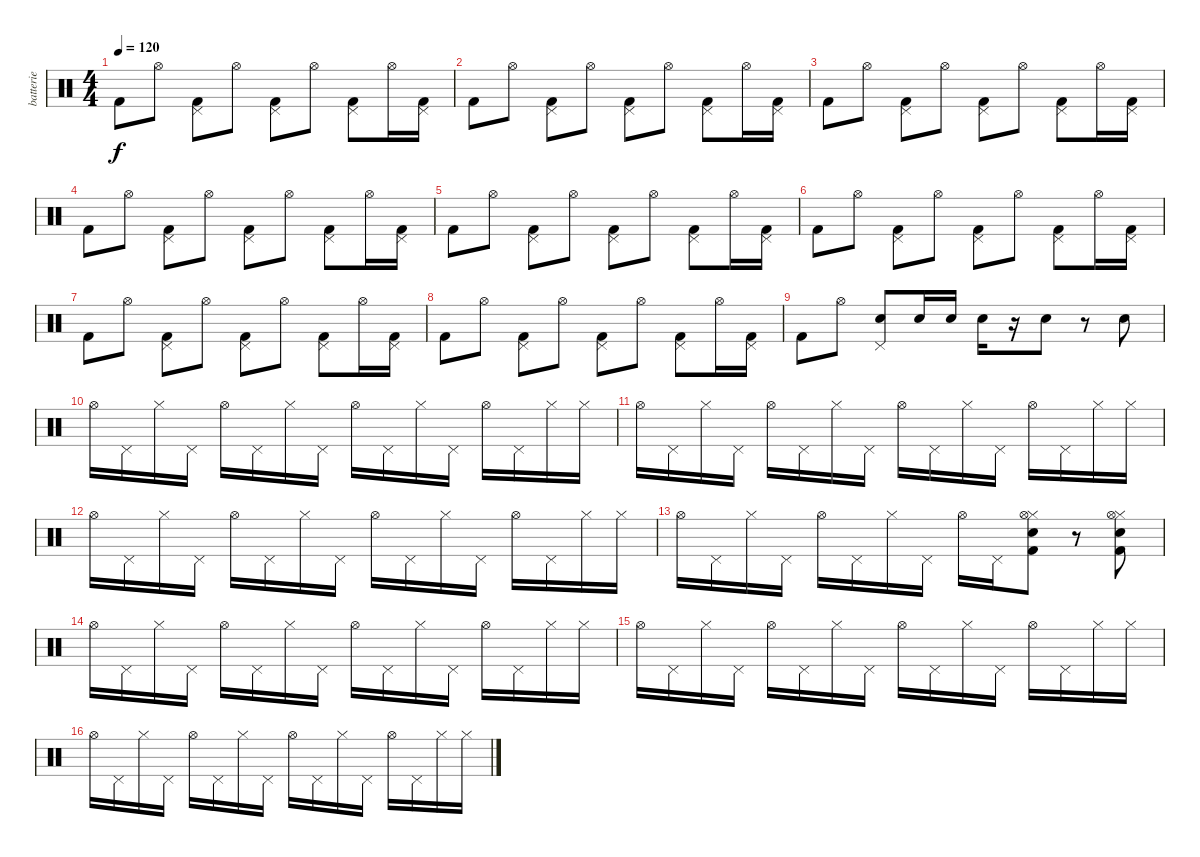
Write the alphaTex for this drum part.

\track ("batterie" "batterie") {instrument percussion}
\staff {score}
\articulation defaults
\ts (4 4)
\tempo 120
\clef neutral
\ks c "Kick (hit) 2".8{dy f} "Hi-Hat (open)".8
("Kick (hit) 2" "Pedal Hi-Hat (hit)").8 "Hi-Hat (open)".8 ("Kick (hit) 2" "Pedal Hi-Hat (hit)").8 "Hi-Hat (open)".8 ("Kick (hit) 2" "Pedal Hi-Hat (hit)").8 "Hi-Hat (open)".16 ("Kick (hit) 2" "Pedal Hi-Hat (hit)").16 |
"Kick (hit) 2".8 "Hi-Hat (open)".8 ("Kick (hit) 2" "Pedal Hi-Hat (hit)").8 "Hi-Hat (open)".8 ("Kick (hit) 2" "Pedal Hi-Hat (hit)").8 "Hi-Hat (open)".8 ("Kick (hit) 2" "Pedal Hi-Hat (hit)").8 "Hi-Hat (open)".16 ("Kick (hit) 2" "Pedal Hi-Hat (hit)").16 |
"Kick (hit) 2".8 "Hi-Hat (open)".8 ("Kick (hit) 2" "Pedal Hi-Hat (hit)").8 "Hi-Hat (open)".8 ("Kick (hit) 2" "Pedal Hi-Hat (hit)").8 "Hi-Hat (open)".8 ("Kick (hit) 2" "Pedal Hi-Hat (hit)").8 "Hi-Hat (open)".16 ("Kick (hit) 2" "Pedal Hi-Hat (hit)").16 |
"Kick (hit) 2".8 "Hi-Hat (open)".8 ("Kick (hit) 2" "Pedal Hi-Hat (hit)").8 "Hi-Hat (open)".8 ("Kick (hit) 2" "Pedal Hi-Hat (hit)").8 "Hi-Hat (open)".8 ("Kick (hit) 2" "Pedal Hi-Hat (hit)").8 "Hi-Hat (open)".16 ("Kick (hit) 2" "Pedal Hi-Hat (hit)").16 |
"Kick (hit) 2".8 "Hi-Hat (open)".8 ("Kick (hit) 2" "Pedal Hi-Hat (hit)").8 "Hi-Hat (open)".8 ("Kick (hit) 2" "Pedal Hi-Hat (hit)").8 "Hi-Hat (open)".8 ("Kick (hit) 2" "Pedal Hi-Hat (hit)").8 "Hi-Hat (open)".16 ("Kick (hit) 2" "Pedal Hi-Hat (hit)").16 |
"Kick (hit) 2".8 "Hi-Hat (open)".8 ("Kick (hit) 2" "Pedal Hi-Hat (hit)").8 "Hi-Hat (open)".8 ("Kick (hit) 2" "Pedal Hi-Hat (hit)").8 "Hi-Hat (open)".8 ("Kick (hit) 2" "Pedal Hi-Hat (hit)").8 "Hi-Hat (open)".16 ("Kick (hit) 2" "Pedal Hi-Hat (hit)").16 |
"Kick (hit) 2".8 "Hi-Hat (open)".8 ("Kick (hit) 2" "Pedal Hi-Hat (hit)").8 "Hi-Hat (open)".8 ("Kick (hit) 2" "Pedal Hi-Hat (hit)").8 "Hi-Hat (open)".8 ("Kick (hit) 2" "Pedal Hi-Hat (hit)").8 "Hi-Hat (open)".16 ("Kick (hit) 2" "Pedal Hi-Hat (hit)").16 |
"Kick (hit) 2".8 "Hi-Hat (open)".8 ("Kick (hit) 2" "Pedal Hi-Hat (hit)").8 "Hi-Hat (open)".8 ("Kick (hit) 2" "Pedal Hi-Hat (hit)").8 "Hi-Hat (open)".8 ("Kick (hit) 2" "Pedal Hi-Hat (hit)").8 "Hi-Hat (open)".16 ("Kick (hit) 2" "Pedal Hi-Hat (hit)").16 |
"Kick (hit) 2".8 "Hi-Hat (open)".8 ("Electric Snare (hit)" "Pedal Hi-Hat (hit)").8 "Electric Snare (hit)".16 "Electric Snare (hit)".16 "Electric Snare (hit)".16 r.16 "Electric Snare (hit)".8 r.8 "Electric Snare (hit)".8 |
"Hi-Hat (open)".16 "Pedal Hi-Hat (hit)".16 "Hi-Hat (closed)".16 "Pedal Hi-Hat (hit)".16 "Hi-Hat (open)".16 "Pedal Hi-Hat (hit)".16 "Hi-Hat (closed)".16 "Pedal Hi-Hat (hit)".16 "Hi-Hat (open)".16 "Pedal Hi-Hat (hit)".16 "Hi-Hat (closed)".16 "Pedal Hi-Hat (hit)".16 "Hi-Hat (open)".16 "Pedal Hi-Hat (hit)".16 "Hi-Hat (closed)".16 "Hi-Hat (closed)".16 |
"Hi-Hat (open)".16 "Pedal Hi-Hat (hit)".16 "Hi-Hat (closed)".16 "Pedal Hi-Hat (hit)".16 "Hi-Hat (open)".16 "Pedal Hi-Hat (hit)".16 "Hi-Hat (closed)".16 "Pedal Hi-Hat (hit)".16 "Hi-Hat (open)".16 "Pedal Hi-Hat (hit)".16 "Hi-Hat (closed)".16 "Pedal Hi-Hat (hit)".16 "Hi-Hat (open)".16 "Pedal Hi-Hat (hit)".16 "Hi-Hat (closed)".16 "Hi-Hat (closed)".16 |
"Hi-Hat (open)".16 "Pedal Hi-Hat (hit)".16 "Hi-Hat (closed)".16 "Pedal Hi-Hat (hit)".16 "Hi-Hat (open)".16 "Pedal Hi-Hat (hit)".16 "Hi-Hat (closed)".16 "Pedal Hi-Hat (hit)".16 "Hi-Hat (open)".16 "Pedal Hi-Hat (hit)".16 "Hi-Hat (closed)".16 "Pedal Hi-Hat (hit)".16 "Hi-Hat (open)".16 "Pedal Hi-Hat (hit)".16 "Hi-Hat (closed)".16 "Hi-Hat (closed)".16 |
"Hi-Hat (open)".16 "Pedal Hi-Hat (hit)".16 "Hi-Hat (closed)".16 "Pedal Hi-Hat (hit)".16 "Hi-Hat (open)".16 "Pedal Hi-Hat (hit)".16 "Hi-Hat (closed)".16 "Pedal Hi-Hat (hit)".16 "Hi-Hat (open)".16 "Pedal Hi-Hat (hit)".16 ("Kick (hit) 2" "Hi-Hat (closed)" "Electric Snare (hit)" "Hi-Hat (open)").8 r.8 ("Kick (hit) 2" "Hi-Hat (closed)" "Electric Snare (hit)" "Hi-Hat (open)").8 |
"Hi-Hat (open)".16 "Pedal Hi-Hat (hit)".16 "Hi-Hat (closed)".16 "Pedal Hi-Hat (hit)".16 "Hi-Hat (open)".16 "Pedal Hi-Hat (hit)".16 "Hi-Hat (closed)".16 "Pedal Hi-Hat (hit)".16 "Hi-Hat (open)".16 "Pedal Hi-Hat (hit)".16 "Hi-Hat (closed)".16 "Pedal Hi-Hat (hit)".16 "Hi-Hat (open)".16 "Pedal Hi-Hat (hit)".16 "Hi-Hat (closed)".16 "Hi-Hat (closed)".16 |
"Hi-Hat (open)".16 "Pedal Hi-Hat (hit)".16 "Hi-Hat (closed)".16 "Pedal Hi-Hat (hit)".16 "Hi-Hat (open)".16 "Pedal Hi-Hat (hit)".16 "Hi-Hat (closed)".16 "Pedal Hi-Hat (hit)".16 "Hi-Hat (open)".16 "Pedal Hi-Hat (hit)".16 "Hi-Hat (closed)".16 "Pedal Hi-Hat (hit)".16 "Hi-Hat (open)".16 "Pedal Hi-Hat (hit)".16 "Hi-Hat (closed)".16 "Hi-Hat (closed)".16 |
"Hi-Hat (open)".16 "Pedal Hi-Hat (hit)".16 "Hi-Hat (closed)".16 "Pedal Hi-Hat (hit)".16 "Hi-Hat (open)".16 "Pedal Hi-Hat (hit)".16 "Hi-Hat (closed)".16 "Pedal Hi-Hat (hit)".16 "Hi-Hat (open)".16 "Pedal Hi-Hat (hit)".16 "Hi-Hat (closed)".16 "Pedal Hi-Hat (hit)".16 "Hi-Hat (open)".16 "Pedal Hi-Hat (hit)".16 "Hi-Hat (closed)".16 "Hi-Hat (closed)".16
